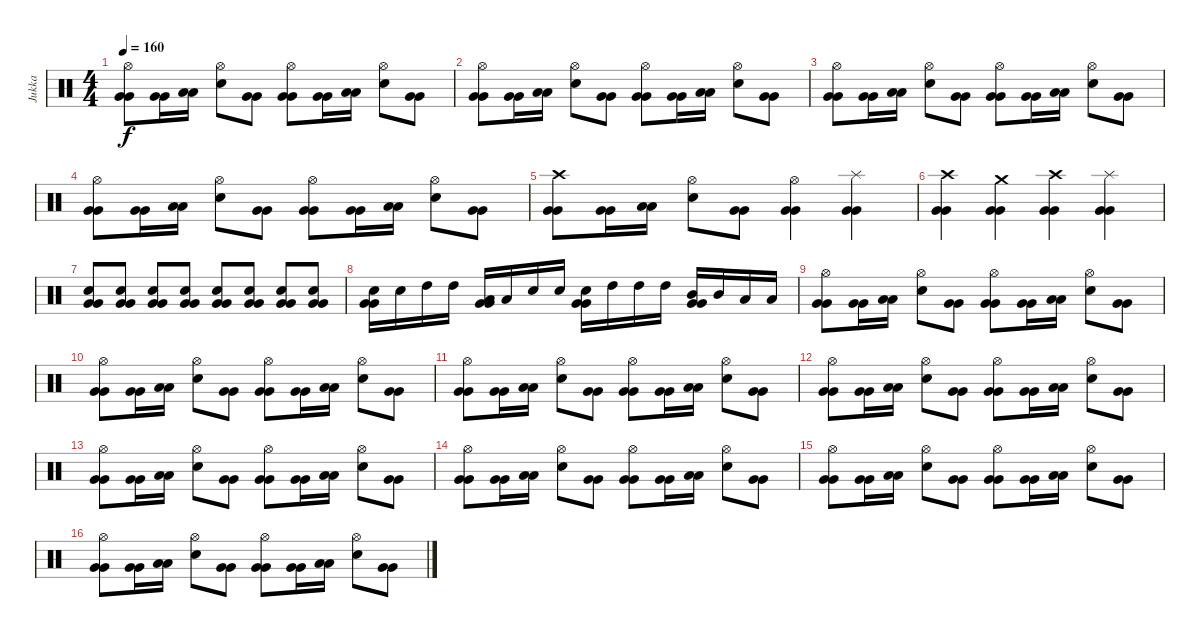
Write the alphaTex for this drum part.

\track ("Jukka" "Jukka") {instrument percussion}
\staff {score}
\articulation defaults
\ts (4 4)
\tempo 160
\clef neutral
\ks c
("Hi-Hat (open)" "Very Low Tom (hit)" "Very Low Tom (hit)").8{dy f} ("Very Low Tom (hit)" "Very Low Tom (hit)").16 ("Low Floor Tom (hit)" "Low Floor Tom (hit)").16 ("Hi-Hat (open)" "Electric Snare (hit)").8 ("Very Low Tom (hit)" "Very Low Tom (hit)").8 ("Hi-Hat (open)" "Very Low Tom (hit)" "Very Low Tom (hit)").8 ("Very Low Tom (hit)" "Very Low Tom (hit)").16 ("Low Floor Tom (hit)" "Low Floor Tom (hit)").16 ("Hi-Hat (open)" "Electric Snare (hit)").8 ("Very Low Tom (hit)" "Very Low Tom (hit)").8 |
("Hi-Hat (open)" "Very Low Tom (hit)" "Very Low Tom (hit)").8 ("Very Low Tom (hit)" "Very Low Tom (hit)").16 ("Low Floor Tom (hit)" "Low Floor Tom (hit)").16 ("Hi-Hat (open)" "Electric Snare (hit)").8 ("Very Low Tom (hit)" "Very Low Tom (hit)").8 ("Hi-Hat (open)" "Very Low Tom (hit)" "Very Low Tom (hit)").8 ("Very Low Tom (hit)" "Very Low Tom (hit)").16 ("Low Floor Tom (hit)" "Low Floor Tom (hit)").16 ("Hi-Hat (open)" "Electric Snare (hit)").8 ("Very Low Tom (hit)" "Very Low Tom (hit)").8 |
("Hi-Hat (open)" "Very Low Tom (hit)" "Very Low Tom (hit)").8 ("Very Low Tom (hit)" "Very Low Tom (hit)").16 ("Low Floor Tom (hit)" "Low Floor Tom (hit)").16 ("Hi-Hat (open)" "Electric Snare (hit)").8 ("Very Low Tom (hit)" "Very Low Tom (hit)").8 ("Hi-Hat (open)" "Very Low Tom (hit)" "Very Low Tom (hit)").8 ("Very Low Tom (hit)" "Very Low Tom (hit)").16 ("Low Floor Tom (hit)" "Low Floor Tom (hit)").16 ("Hi-Hat (open)" "Electric Snare (hit)").8 ("Very Low Tom (hit)" "Very Low Tom (hit)").8 |
("Hi-Hat (open)" "Very Low Tom (hit)" "Very Low Tom (hit)").8 ("Very Low Tom (hit)" "Very Low Tom (hit)").16 ("Low Floor Tom (hit)" "Low Floor Tom (hit)").16 ("Hi-Hat (open)" "Electric Snare (hit)").8 ("Very Low Tom (hit)" "Very Low Tom (hit)").8 ("Hi-Hat (open)" "Very Low Tom (hit)" "Very Low Tom (hit)").8 ("Very Low Tom (hit)" "Very Low Tom (hit)").16 ("Low Floor Tom (hit)" "Low Floor Tom (hit)").16 ("Hi-Hat (open)" "Electric Snare (hit)").8 ("Very Low Tom (hit)" "Very Low Tom (hit)").8 |
("Crash high (hit)" "Very Low Tom (hit)" "Very Low Tom (hit)").8 ("Very Low Tom (hit)" "Very Low Tom (hit)").16 ("Low Floor Tom (hit)" "Low Floor Tom (hit)").16 ("Hi-Hat (open)" "Electric Snare (hit)").8 ("Very Low Tom (hit)" "Very Low Tom (hit)").8 ("Hi-Hat (open)" "Very Low Tom (hit)" "Very Low Tom (hit)").4 ("Splash (hit)" "Very Low Tom (hit)" "Very Low Tom (hit)").4 |
("Crash high (hit)" "Very Low Tom (hit)" "Very Low Tom (hit)").4 ("Crash medium (hit)" "Very Low Tom (hit)" "Very Low Tom (hit)").4 ("Crash high (hit)" "Very Low Tom (hit)" "Very Low Tom (hit)").4 ("Splash (hit)" "Very Low Tom (hit)" "Very Low Tom (hit)").4 |
("Electric Snare (hit)" "Very Low Tom (hit)" "Very Low Tom (hit)").8 ("Electric Snare (hit)" "Very Low Tom (hit)" "Very Low Tom (hit)").8 ("Electric Snare (hit)" "Very Low Tom (hit)" "Very Low Tom (hit)").8 ("Electric Snare (hit)" "Very Low Tom (hit)" "Very Low Tom (hit)").8 ("Electric Snare (hit)" "Very Low Tom (hit)" "Very Low Tom (hit)").8 ("Electric Snare (hit)" "Very Low Tom (hit)" "Very Low Tom (hit)").8 ("Electric Snare (hit)" "Very Low Tom (hit)" "Very Low Tom (hit)").8 ("Electric Snare (hit)" "Very Low Tom (hit)" "Very Low Tom (hit)").8 |
("Electric Snare (hit)" "Very Low Tom (hit)" "Very Low Tom (hit)").16 "Electric Snare (hit)".16 "High Tom (hit)".16 "High Tom (hit)".16 ("Low Tom (hit)" "Very Low Tom (hit)" "Very Low Tom (hit)").16 "Low Tom (hit)".16 "Electric Snare (hit)".16 "Electric Snare (hit)".16 ("Electric Snare (hit)" "Very Low Tom (hit)" "Very Low Tom (hit)").16 "High Tom (hit)".16 "High Tom (hit)".16 "High Tom (hit)".16 ("Mid Tom (hit)" "Very Low Tom (hit)" "Very Low Tom (hit)").16 "Mid Tom (hit)".16 "Low Tom (hit)".16 "Low Tom (hit)".16 |
("Hi-Hat (open)" "Very Low Tom (hit)" "Very Low Tom (hit)").8 ("Very Low Tom (hit)" "Very Low Tom (hit)").16 ("Low Floor Tom (hit)" "Low Floor Tom (hit)").16 ("Hi-Hat (open)" "Electric Snare (hit)").8 ("Very Low Tom (hit)" "Very Low Tom (hit)").8 ("Hi-Hat (open)" "Very Low Tom (hit)" "Very Low Tom (hit)").8 ("Very Low Tom (hit)" "Very Low Tom (hit)").16 ("Low Floor Tom (hit)" "Low Floor Tom (hit)").16 ("Hi-Hat (open)" "Electric Snare (hit)").8 ("Very Low Tom (hit)" "Very Low Tom (hit)").8 |
("Hi-Hat (open)" "Very Low Tom (hit)" "Very Low Tom (hit)").8 ("Very Low Tom (hit)" "Very Low Tom (hit)").16 ("Low Floor Tom (hit)" "Low Floor Tom (hit)").16 ("Hi-Hat (open)" "Electric Snare (hit)").8 ("Very Low Tom (hit)" "Very Low Tom (hit)").8 ("Hi-Hat (open)" "Very Low Tom (hit)" "Very Low Tom (hit)").8 ("Very Low Tom (hit)" "Very Low Tom (hit)").16 ("Low Floor Tom (hit)" "Low Floor Tom (hit)").16 ("Hi-Hat (open)" "Electric Snare (hit)").8 ("Very Low Tom (hit)" "Very Low Tom (hit)").8 |
("Hi-Hat (open)" "Very Low Tom (hit)" "Very Low Tom (hit)").8 ("Very Low Tom (hit)" "Very Low Tom (hit)").16 ("Low Floor Tom (hit)" "Low Floor Tom (hit)").16 ("Hi-Hat (open)" "Electric Snare (hit)").8 ("Very Low Tom (hit)" "Very Low Tom (hit)").8 ("Hi-Hat (open)" "Very Low Tom (hit)" "Very Low Tom (hit)").8 ("Very Low Tom (hit)" "Very Low Tom (hit)").16 ("Low Floor Tom (hit)" "Low Floor Tom (hit)").16 ("Hi-Hat (open)" "Electric Snare (hit)").8 ("Very Low Tom (hit)" "Very Low Tom (hit)").8 |
("Hi-Hat (open)" "Very Low Tom (hit)" "Very Low Tom (hit)").8 ("Very Low Tom (hit)" "Very Low Tom (hit)").16 ("Low Floor Tom (hit)" "Low Floor Tom (hit)").16 ("Hi-Hat (open)" "Electric Snare (hit)").8 ("Very Low Tom (hit)" "Very Low Tom (hit)").8 ("Hi-Hat (open)" "Very Low Tom (hit)" "Very Low Tom (hit)").8 ("Very Low Tom (hit)" "Very Low Tom (hit)").16 ("Low Floor Tom (hit)" "Low Floor Tom (hit)").16 ("Hi-Hat (open)" "Electric Snare (hit)").8 ("Very Low Tom (hit)" "Very Low Tom (hit)").8 |
("Hi-Hat (open)" "Very Low Tom (hit)" "Very Low Tom (hit)").8 ("Very Low Tom (hit)" "Very Low Tom (hit)").16 ("Low Floor Tom (hit)" "Low Floor Tom (hit)").16 ("Hi-Hat (open)" "Electric Snare (hit)").8 ("Very Low Tom (hit)" "Very Low Tom (hit)").8 ("Hi-Hat (open)" "Very Low Tom (hit)" "Very Low Tom (hit)").8 ("Very Low Tom (hit)" "Very Low Tom (hit)").16 ("Low Floor Tom (hit)" "Low Floor Tom (hit)").16 ("Hi-Hat (open)" "Electric Snare (hit)").8 ("Very Low Tom (hit)" "Very Low Tom (hit)").8 |
("Hi-Hat (open)" "Very Low Tom (hit)" "Very Low Tom (hit)").8 ("Very Low Tom (hit)" "Very Low Tom (hit)").16 ("Low Floor Tom (hit)" "Low Floor Tom (hit)").16 ("Hi-Hat (open)" "Electric Snare (hit)").8 ("Very Low Tom (hit)" "Very Low Tom (hit)").8 ("Hi-Hat (open)" "Very Low Tom (hit)" "Very Low Tom (hit)").8 ("Very Low Tom (hit)" "Very Low Tom (hit)").16 ("Low Floor Tom (hit)" "Low Floor Tom (hit)").16 ("Hi-Hat (open)" "Electric Snare (hit)").8 ("Very Low Tom (hit)" "Very Low Tom (hit)").8 |
("Hi-Hat (open)" "Very Low Tom (hit)" "Very Low Tom (hit)").8 ("Very Low Tom (hit)" "Very Low Tom (hit)").16 ("Low Floor Tom (hit)" "Low Floor Tom (hit)").16 ("Hi-Hat (open)" "Electric Snare (hit)").8 ("Very Low Tom (hit)" "Very Low Tom (hit)").8 ("Hi-Hat (open)" "Very Low Tom (hit)" "Very Low Tom (hit)").8 ("Very Low Tom (hit)" "Very Low Tom (hit)").16 ("Low Floor Tom (hit)" "Low Floor Tom (hit)").16 ("Hi-Hat (open)" "Electric Snare (hit)").8 ("Very Low Tom (hit)" "Very Low Tom (hit)").8 |
("Hi-Hat (open)" "Very Low Tom (hit)" "Very Low Tom (hit)").8 ("Very Low Tom (hit)" "Very Low Tom (hit)").16 ("Low Floor Tom (hit)" "Low Floor Tom (hit)").16 ("Hi-Hat (open)" "Electric Snare (hit)").8 ("Very Low Tom (hit)" "Very Low Tom (hit)").8 ("Hi-Hat (open)" "Very Low Tom (hit)" "Very Low Tom (hit)").8 ("Very Low Tom (hit)" "Very Low Tom (hit)").16 ("Low Floor Tom (hit)" "Low Floor Tom (hit)").16 ("Hi-Hat (open)" "Electric Snare (hit)").8 ("Very Low Tom (hit)" "Very Low Tom (hit)").8
